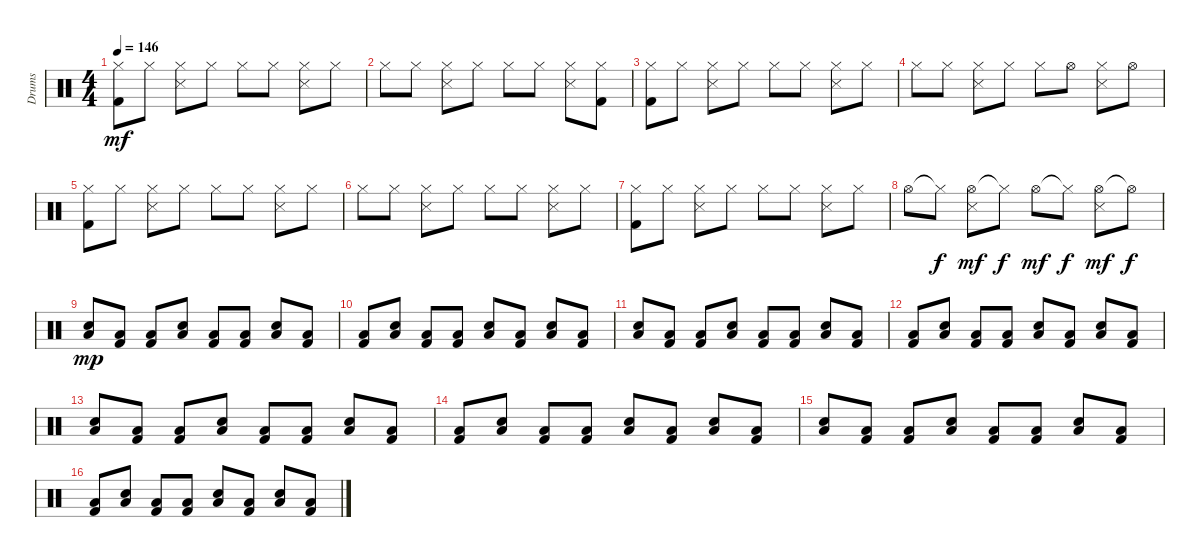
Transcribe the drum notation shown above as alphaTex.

\track ("Drums" "Drums") {instrument percussion}
\staff {score}
\articulation defaults
\ts (4 4)
\tempo 146
\clef neutral
\ks c
("Hi-Hat (closed)" "Kick (hit) 2").8{dy mf} "Hi-Hat (closed)".8 ("Hi-Hat (closed)" "Snare (side stick) 3").8 "Hi-Hat (closed)".8 "Hi-Hat (closed)".8 "Hi-Hat (closed)".8 ("Hi-Hat (closed)" "Snare (side stick) 3").8 "Hi-Hat (closed)".8 |
"Hi-Hat (closed)".8 "Hi-Hat (closed)".8 ("Hi-Hat (closed)" "Snare (side stick) 3").8 "Hi-Hat (closed)".8 "Hi-Hat (closed)".8 "Hi-Hat (closed)".8 ("Hi-Hat (closed)" "Snare (side stick) 3").8 ("Hi-Hat (closed)" "Kick (hit) 2").8 |
("Hi-Hat (closed)" "Kick (hit) 2").8 "Hi-Hat (closed)".8 ("Hi-Hat (closed)" "Snare (side stick) 3").8 "Hi-Hat (closed)".8 "Hi-Hat (closed)".8 "Hi-Hat (closed)".8 ("Hi-Hat (closed)" "Snare (side stick) 3").8 "Hi-Hat (closed)".8 |
"Hi-Hat (closed)".8 "Hi-Hat (closed)".8 ("Hi-Hat (closed)" "Snare (side stick) 3").8 "Hi-Hat (closed)".8 "Hi-Hat (closed)".8 "Hi-Hat (open)".8 ("Hi-Hat (closed)" "Snare (side stick) 3").8 "Hi-Hat (open)".8 |
("Hi-Hat (closed)" "Kick (hit) 2").8 "Hi-Hat (closed)".8 ("Hi-Hat (closed)" "Snare (side stick) 3").8 "Hi-Hat (closed)".8 "Hi-Hat (closed)".8 "Hi-Hat (closed)".8 ("Hi-Hat (closed)" "Snare (side stick) 3").8 "Hi-Hat (closed)".8 |
"Hi-Hat (closed)".8 "Hi-Hat (closed)".8 ("Hi-Hat (closed)" "Snare (side stick) 3").8 "Hi-Hat (closed)".8 "Hi-Hat (closed)".8 "Hi-Hat (closed)".8 ("Hi-Hat (closed)" "Snare (side stick) 3").8 "Hi-Hat (closed)".8 |
("Hi-Hat (closed)" "Kick (hit) 2").8 "Hi-Hat (closed)".8 ("Hi-Hat (closed)" "Snare (side stick) 3").8 "Hi-Hat (closed)".8 "Hi-Hat (closed)".8 "Hi-Hat (closed)".8 ("Hi-Hat (closed)" "Snare (side stick) 3").8 "Hi-Hat (closed)".8 |
"Hi-Hat (open)".8 "Hi-Hat (closed)"{t}.8{dy f} ("Hi-Hat (open)" "Snare (side stick) 3").8{dy mf} "Hi-Hat (closed)"{t}.8{dy f} "Hi-Hat (open)".8{dy mf} "Hi-Hat (closed)"{t}.8{dy f} ("Hi-Hat (open)" "Snare (side stick) 3").8{dy mf} "Hi-Hat (open)"{t}.8{dy f} |
("Low Floor Tom (hit)" "Electric Snare (hit)").8{dy mp} ("Low Floor Tom (hit)" "Kick (hit) 2").8 ("Low Floor Tom (hit)" "Kick (hit) 2").8 ("Low Floor Tom (hit)" "Electric Snare (hit)").8 ("Low Floor Tom (hit)" "Kick (hit) 2").8 ("Low Floor Tom (hit)" "Kick (hit) 2").8 ("Low Floor Tom (hit)" "Electric Snare (hit)").8 ("Low Floor Tom (hit)" "Kick (hit) 2").8 |
("Low Floor Tom (hit)" "Kick (hit) 2").8 ("Low Floor Tom (hit)" "Electric Snare (hit)").8 ("Low Floor Tom (hit)" "Kick (hit) 2").8 ("Low Floor Tom (hit)" "Kick (hit) 2").8 ("Low Floor Tom (hit)" "Electric Snare (hit)").8 ("Low Floor Tom (hit)" "Kick (hit) 2").8 ("Low Floor Tom (hit)" "Electric Snare (hit)").8 ("Low Floor Tom (hit)" "Kick (hit) 2").8 |
("Low Floor Tom (hit)" "Electric Snare (hit)").8 ("Low Floor Tom (hit)" "Kick (hit) 2").8 ("Low Floor Tom (hit)" "Kick (hit) 2").8 ("Low Floor Tom (hit)" "Electric Snare (hit)").8 ("Low Floor Tom (hit)" "Kick (hit) 2").8 ("Low Floor Tom (hit)" "Kick (hit) 2").8 ("Low Floor Tom (hit)" "Electric Snare (hit)").8 ("Low Floor Tom (hit)" "Kick (hit) 2").8 |
("Low Floor Tom (hit)" "Kick (hit) 2").8 ("Low Floor Tom (hit)" "Electric Snare (hit)").8 ("Low Floor Tom (hit)" "Kick (hit) 2").8 ("Low Floor Tom (hit)" "Kick (hit) 2").8 ("Low Floor Tom (hit)" "Electric Snare (hit)").8 ("Low Floor Tom (hit)" "Kick (hit) 2").8 ("Low Floor Tom (hit)" "Electric Snare (hit)").8 ("Low Floor Tom (hit)" "Kick (hit) 2").8 |
("Low Floor Tom (hit)" "Electric Snare (hit)").8 ("Low Floor Tom (hit)" "Kick (hit) 2").8 ("Low Floor Tom (hit)" "Kick (hit) 2").8 ("Low Floor Tom (hit)" "Electric Snare (hit)").8 ("Low Floor Tom (hit)" "Kick (hit) 2").8 ("Low Floor Tom (hit)" "Kick (hit) 2").8 ("Low Floor Tom (hit)" "Electric Snare (hit)").8 ("Low Floor Tom (hit)" "Kick (hit) 2").8 |
("Low Floor Tom (hit)" "Kick (hit) 2").8 ("Low Floor Tom (hit)" "Electric Snare (hit)").8 ("Low Floor Tom (hit)" "Kick (hit) 2").8 ("Low Floor Tom (hit)" "Kick (hit) 2").8 ("Low Floor Tom (hit)" "Electric Snare (hit)").8 ("Low Floor Tom (hit)" "Kick (hit) 2").8 ("Low Floor Tom (hit)" "Electric Snare (hit)").8 ("Low Floor Tom (hit)" "Kick (hit) 2").8 |
("Low Floor Tom (hit)" "Electric Snare (hit)").8 ("Low Floor Tom (hit)" "Kick (hit) 2").8 ("Low Floor Tom (hit)" "Kick (hit) 2").8 ("Low Floor Tom (hit)" "Electric Snare (hit)").8 ("Low Floor Tom (hit)" "Kick (hit) 2").8 ("Low Floor Tom (hit)" "Kick (hit) 2").8 ("Low Floor Tom (hit)" "Electric Snare (hit)").8 ("Low Floor Tom (hit)" "Kick (hit) 2").8 |
("Low Floor Tom (hit)" "Kick (hit) 2").8 ("Low Floor Tom (hit)" "Electric Snare (hit)").8 ("Low Floor Tom (hit)" "Kick (hit) 2").8 ("Low Floor Tom (hit)" "Kick (hit) 2").8 ("Low Floor Tom (hit)" "Electric Snare (hit)").8 ("Low Floor Tom (hit)" "Kick (hit) 2").8 ("Low Floor Tom (hit)" "Electric Snare (hit)").8 ("Low Floor Tom (hit)" "Kick (hit) 2").8
